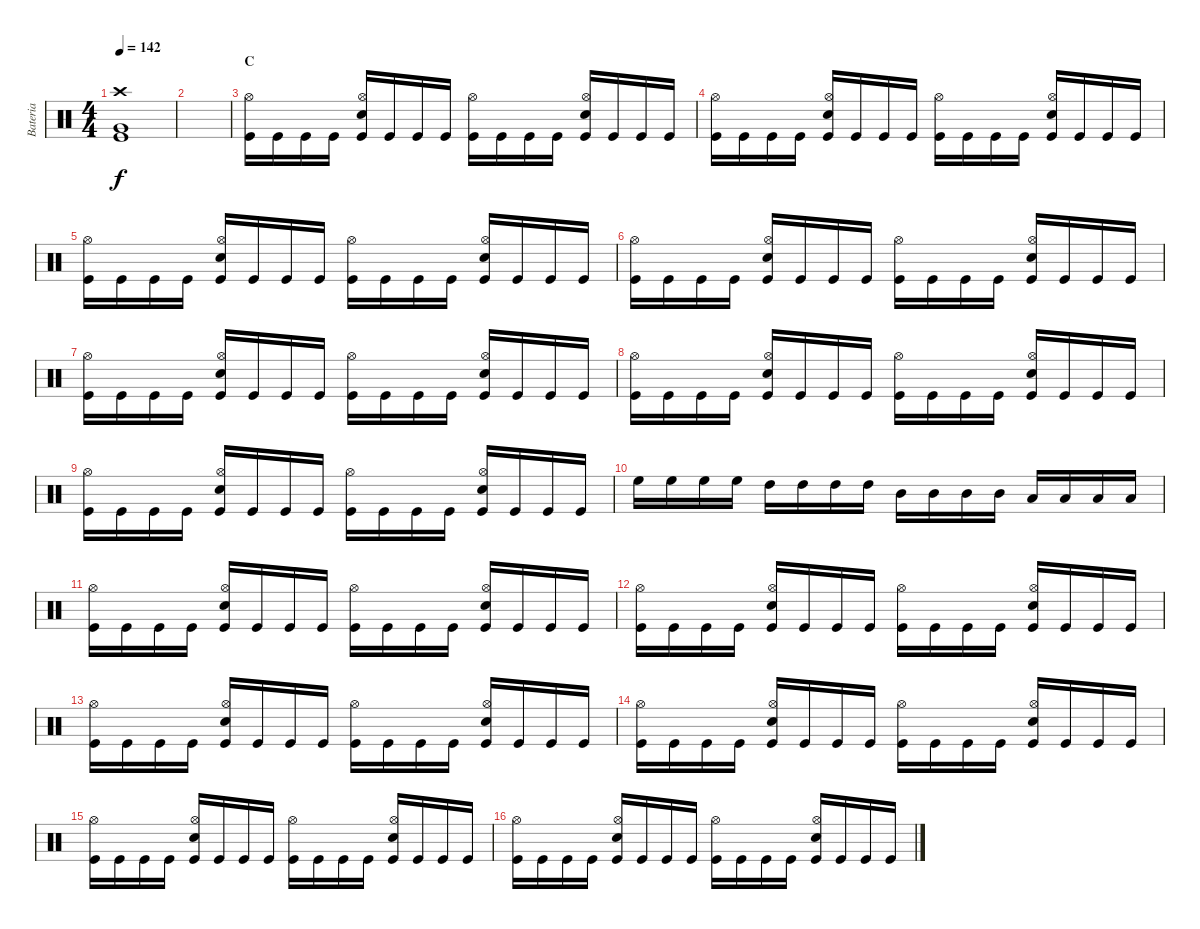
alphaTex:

\track ("Bateria" "Bateria") {instrument percussion}
\staff {score}
\articulation defaults
\ts (4 4)
\tempo 142
\clef neutral
\ks c
("Crash high (hit)" "Very Low Tom (hit)" "Kick (hit)").1{dy f} |
|
\section ("" "C")
("Hi-Hat (open)" "Kick (hit)").16 "Kick (hit)".16 "Kick (hit)".16 "Kick (hit)".16 ("Hi-Hat (open)" "Snare (hit) 2" "Kick (hit)").16 "Kick (hit)".16 "Kick (hit)".16 "Kick (hit)".16 ("Hi-Hat (open)" "Kick (hit)").16 "Kick (hit)".16 "Kick (hit)".16 "Kick (hit)".16 ("Hi-Hat (open)" "Snare (hit) 2" "Kick (hit)").16 "Kick (hit)".16 "Kick (hit)".16 "Kick (hit)".16 |
("Hi-Hat (open)" "Kick (hit)").16 "Kick (hit)".16 "Kick (hit)".16 "Kick (hit)".16 ("Hi-Hat (open)" "Snare (hit) 2" "Kick (hit)").16 "Kick (hit)".16 "Kick (hit)".16 "Kick (hit)".16 ("Hi-Hat (open)" "Kick (hit)").16 "Kick (hit)".16 "Kick (hit)".16 "Kick (hit)".16 ("Hi-Hat (open)" "Snare (hit) 2" "Kick (hit)").16 "Kick (hit)".16 "Kick (hit)".16 "Kick (hit)".16 |
("Hi-Hat (open)" "Kick (hit)").16 "Kick (hit)".16 "Kick (hit)".16 "Kick (hit)".16 ("Hi-Hat (open)" "Snare (hit) 2" "Kick (hit)").16 "Kick (hit)".16 "Kick (hit)".16 "Kick (hit)".16 ("Hi-Hat (open)" "Kick (hit)").16 "Kick (hit)".16 "Kick (hit)".16 "Kick (hit)".16 ("Hi-Hat (open)" "Snare (hit) 2" "Kick (hit)").16 "Kick (hit)".16 "Kick (hit)".16 "Kick (hit)".16 |
("Hi-Hat (open)" "Kick (hit)").16 "Kick (hit)".16 "Kick (hit)".16 "Kick (hit)".16 ("Hi-Hat (open)" "Snare (hit) 2" "Kick (hit)").16 "Kick (hit)".16 "Kick (hit)".16 "Kick (hit)".16 ("Hi-Hat (open)" "Kick (hit)").16 "Kick (hit)".16 "Kick (hit)".16 "Kick (hit)".16 ("Hi-Hat (open)" "Snare (hit) 2" "Kick (hit)").16 "Kick (hit)".16 "Kick (hit)".16 "Kick (hit)".16 |
("Hi-Hat (open)" "Kick (hit)").16 "Kick (hit)".16 "Kick (hit)".16 "Kick (hit)".16 ("Hi-Hat (open)" "Snare (hit) 2" "Kick (hit)").16 "Kick (hit)".16 "Kick (hit)".16 "Kick (hit)".16 ("Hi-Hat (open)" "Kick (hit)").16 "Kick (hit)".16 "Kick (hit)".16 "Kick (hit)".16 ("Hi-Hat (open)" "Snare (hit) 2" "Kick (hit)").16 "Kick (hit)".16 "Kick (hit)".16 "Kick (hit)".16 |
("Hi-Hat (open)" "Kick (hit)").16 "Kick (hit)".16 "Kick (hit)".16 "Kick (hit)".16 ("Hi-Hat (open)" "Snare (hit) 2" "Kick (hit)").16 "Kick (hit)".16 "Kick (hit)".16 "Kick (hit)".16 ("Hi-Hat (open)" "Kick (hit)").16 "Kick (hit)".16 "Kick (hit)".16 "Kick (hit)".16 ("Hi-Hat (open)" "Snare (hit) 2" "Kick (hit)").16 "Kick (hit)".16 "Kick (hit)".16 "Kick (hit)".16 |
("Hi-Hat (open)" "Kick (hit)").16 "Kick (hit)".16 "Kick (hit)".16 "Kick (hit)".16 ("Hi-Hat (open)" "Snare (hit) 2" "Kick (hit)").16 "Kick (hit)".16 "Kick (hit)".16 "Kick (hit)".16 ("Hi-Hat (open)" "Kick (hit)").16 "Kick (hit)".16 "Kick (hit)".16 "Kick (hit)".16 ("Hi-Hat (open)" "Snare (hit) 2" "Kick (hit)").16 "Kick (hit)".16 "Kick (hit)".16 "Kick (hit)".16 |
"High Floor Tom (hit)".16 "High Floor Tom (hit)".16 "High Floor Tom (hit)".16 "High Floor Tom (hit)".16 "High Tom (hit)".16 "High Tom (hit)".16 "High Tom (hit)".16 "High Tom (hit)".16 "Mid Tom (hit)".16 "Mid Tom (hit)".16 "Mid Tom (hit)".16 "Mid Tom (hit)".16 "Low Tom (hit)".16 "Low Tom (hit)".16 "Low Tom (hit)".16 "Low Tom (hit)".16 |
("Hi-Hat (open)" "Kick (hit)").16 "Kick (hit)".16 "Kick (hit)".16 "Kick (hit)".16 ("Hi-Hat (open)" "Snare (hit) 2" "Kick (hit)").16 "Kick (hit)".16 "Kick (hit)".16 "Kick (hit)".16 ("Hi-Hat (open)" "Kick (hit)").16 "Kick (hit)".16 "Kick (hit)".16 "Kick (hit)".16 ("Hi-Hat (open)" "Snare (hit) 2" "Kick (hit)").16 "Kick (hit)".16 "Kick (hit)".16 "Kick (hit)".16 |
("Hi-Hat (open)" "Kick (hit)").16 "Kick (hit)".16 "Kick (hit)".16 "Kick (hit)".16 ("Hi-Hat (open)" "Snare (hit) 2" "Kick (hit)").16 "Kick (hit)".16 "Kick (hit)".16 "Kick (hit)".16 ("Hi-Hat (open)" "Kick (hit)").16 "Kick (hit)".16 "Kick (hit)".16 "Kick (hit)".16 ("Hi-Hat (open)" "Snare (hit) 2" "Kick (hit)").16 "Kick (hit)".16 "Kick (hit)".16 "Kick (hit)".16 |
("Hi-Hat (open)" "Kick (hit)").16 "Kick (hit)".16 "Kick (hit)".16 "Kick (hit)".16 ("Hi-Hat (open)" "Snare (hit) 2" "Kick (hit)").16 "Kick (hit)".16 "Kick (hit)".16 "Kick (hit)".16 ("Hi-Hat (open)" "Kick (hit)").16 "Kick (hit)".16 "Kick (hit)".16 "Kick (hit)".16 ("Hi-Hat (open)" "Snare (hit) 2" "Kick (hit)").16 "Kick (hit)".16 "Kick (hit)".16 "Kick (hit)".16 |
("Hi-Hat (open)" "Kick (hit)").16 "Kick (hit)".16 "Kick (hit)".16 "Kick (hit)".16 ("Hi-Hat (open)" "Snare (hit) 2" "Kick (hit)").16 "Kick (hit)".16 "Kick (hit)".16 "Kick (hit)".16 ("Hi-Hat (open)" "Kick (hit)").16 "Kick (hit)".16 "Kick (hit)".16 "Kick (hit)".16 ("Hi-Hat (open)" "Snare (hit) 2" "Kick (hit)").16 "Kick (hit)".16 "Kick (hit)".16 "Kick (hit)".16 |
("Hi-Hat (open)" "Kick (hit)").16 "Kick (hit)".16 "Kick (hit)".16 "Kick (hit)".16 ("Hi-Hat (open)" "Snare (hit) 2" "Kick (hit)").16 "Kick (hit)".16 "Kick (hit)".16 "Kick (hit)".16 ("Hi-Hat (open)" "Kick (hit)").16 "Kick (hit)".16 "Kick (hit)".16 "Kick (hit)".16 ("Hi-Hat (open)" "Snare (hit) 2" "Kick (hit)").16 "Kick (hit)".16 "Kick (hit)".16 "Kick (hit)".16 |
("Hi-Hat (open)" "Kick (hit)").16 "Kick (hit)".16 "Kick (hit)".16 "Kick (hit)".16 ("Hi-Hat (open)" "Snare (hit) 2" "Kick (hit)").16 "Kick (hit)".16 "Kick (hit)".16 "Kick (hit)".16 ("Hi-Hat (open)" "Kick (hit)").16 "Kick (hit)".16 "Kick (hit)".16 "Kick (hit)".16 ("Hi-Hat (open)" "Snare (hit) 2" "Kick (hit)").16 "Kick (hit)".16 "Kick (hit)".16 "Kick (hit)".16
